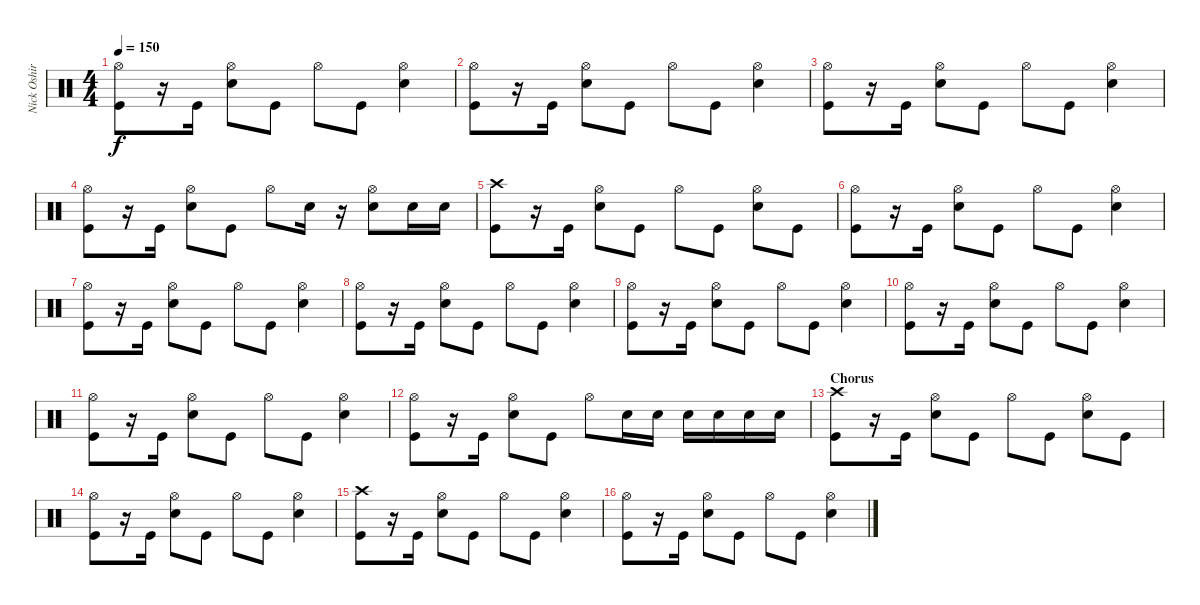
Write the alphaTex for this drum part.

\track ("Nick Oshiro" "Nick Oshir") {instrument percussion}
\staff {score}
\articulation defaults
\ts (4 4)
\tempo 150
\clef neutral
\ks c
("Hi-Hat (open)" "Kick (hit)").8{dy f} r.16 "Kick (hit)".16 ("Hi-Hat (open)" "Snare (hit) 2").8 "Kick (hit)".8 "Hi-Hat (open)".8 "Kick (hit)".8 ("Hi-Hat (open)" "Snare (hit) 2").4 |
("Hi-Hat (open)" "Kick (hit)").8 r.16 "Kick (hit)".16 ("Hi-Hat (open)" "Snare (hit) 2").8 "Kick (hit)".8 "Hi-Hat (open)".8 "Kick (hit)".8 ("Hi-Hat (open)" "Snare (hit) 2").4 |
("Hi-Hat (open)" "Kick (hit)").8 r.16 "Kick (hit)".16 ("Hi-Hat (open)" "Snare (hit) 2").8 "Kick (hit)".8 "Hi-Hat (open)".8 "Kick (hit)".8 ("Hi-Hat (open)" "Snare (hit) 2").4 |
("Hi-Hat (open)" "Kick (hit)").8 r.16 "Kick (hit)".16 ("Hi-Hat (open)" "Snare (hit) 2").8 "Kick (hit)".8 "Hi-Hat (open)".8 "Snare (hit) 2".16 r.16 ("Hi-Hat (open)" "Snare (hit) 2").8 "Snare (hit) 2".16 "Snare (hit) 2".16 |
("Crash high (hit)" "Kick (hit)").8 r.16 "Kick (hit)".16 ("Hi-Hat (open)" "Snare (hit) 2").8 "Kick (hit)".8 "Hi-Hat (open)".8 "Kick (hit)".8 ("Hi-Hat (open)" "Snare (hit) 2").8 "Kick (hit)".8 |
("Hi-Hat (open)" "Kick (hit)").8 r.16 "Kick (hit)".16 ("Hi-Hat (open)" "Snare (hit) 2").8 "Kick (hit)".8 "Hi-Hat (open)".8 "Kick (hit)".8 ("Hi-Hat (open)" "Snare (hit) 2").4 |
("Hi-Hat (open)" "Kick (hit)").8 r.16 "Kick (hit)".16 ("Hi-Hat (open)" "Snare (hit) 2").8 "Kick (hit)".8 "Hi-Hat (open)".8 "Kick (hit)".8 ("Hi-Hat (open)" "Snare (hit) 2").4 |
("Hi-Hat (open)" "Kick (hit)").8 r.16 "Kick (hit)".16 ("Hi-Hat (open)" "Snare (hit) 2").8 "Kick (hit)".8 "Hi-Hat (open)".8 "Kick (hit)".8 ("Hi-Hat (open)" "Snare (hit) 2").4 |
("Hi-Hat (open)" "Kick (hit)").8 r.16 "Kick (hit)".16 ("Hi-Hat (open)" "Snare (hit) 2").8 "Kick (hit)".8 "Hi-Hat (open)".8 "Kick (hit)".8 ("Hi-Hat (open)" "Snare (hit) 2").4 |
("Hi-Hat (open)" "Kick (hit)").8 r.16 "Kick (hit)".16 ("Hi-Hat (open)" "Snare (hit) 2").8 "Kick (hit)".8 "Hi-Hat (open)".8 "Kick (hit)".8 ("Hi-Hat (open)" "Snare (hit) 2").4 |
("Hi-Hat (open)" "Kick (hit)").8 r.16 "Kick (hit)".16 ("Hi-Hat (open)" "Snare (hit) 2").8 "Kick (hit)".8 "Hi-Hat (open)".8 "Kick (hit)".8 ("Hi-Hat (open)" "Snare (hit) 2").4 |
("Hi-Hat (open)" "Kick (hit)").8 r.16 "Kick (hit)".16 ("Hi-Hat (open)" "Snare (hit) 2").8 "Kick (hit)".8 "Hi-Hat (open)".8 "Snare (hit) 2".16 "Snare (hit) 2".16 "Snare (hit) 2".16 "Snare (hit) 2".16 "Snare (hit) 2".16 "Snare (hit) 2".16 |
\section ("" "Chorus")
("Crash high (hit)" "Kick (hit)").8 r.16 "Kick (hit)".16 ("Hi-Hat (open)" "Snare (hit) 2").8 "Kick (hit)".8 "Hi-Hat (open)".8 "Kick (hit)".8 ("Hi-Hat (open)" "Snare (hit) 2").8 "Kick (hit)".8 |
("Hi-Hat (open)" "Kick (hit)").8 r.16 "Kick (hit)".16 ("Hi-Hat (open)" "Snare (hit) 2").8 "Kick (hit)".8 "Hi-Hat (open)".8 "Kick (hit)".8 ("Hi-Hat (open)" "Snare (hit) 2").4 |
("Crash high (hit)" "Kick (hit)").8 r.16 "Kick (hit)".16 ("Hi-Hat (open)" "Snare (hit) 2").8 "Kick (hit)".8 "Hi-Hat (open)".8 "Kick (hit)".8 ("Hi-Hat (open)" "Snare (hit) 2").4 |
("Hi-Hat (open)" "Kick (hit)").8 r.16 "Kick (hit)".16 ("Hi-Hat (open)" "Snare (hit) 2").8 "Kick (hit)".8 "Hi-Hat (open)".8 "Kick (hit)".8 ("Hi-Hat (open)" "Snare (hit) 2").4
